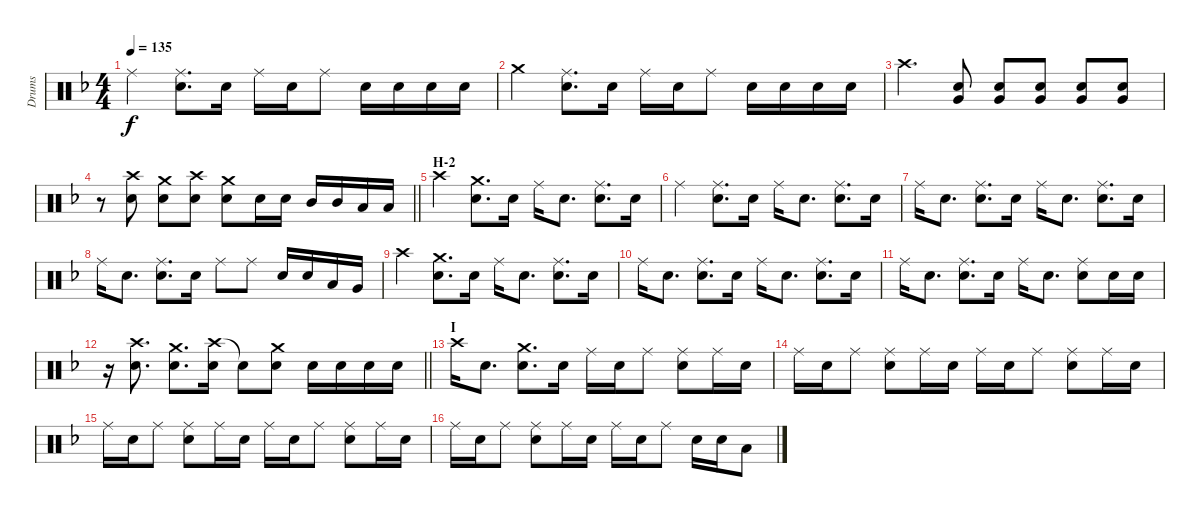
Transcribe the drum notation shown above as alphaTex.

\track ("Drums" "Drums") {instrument percussion}
\staff {score}
\articulation defaults
\ts (4 4)
\tempo 135
\clef neutral
\ks f "Ride (middle)".4{dy f}
("Ride (middle)" "Snare (hit) 2").8{d} "Snare (hit) 2".16 "Ride (middle)".16 "Snare (hit) 2".16 "Ride (middle)".8 "Snare (hit) 2".16 "Snare (hit) 2".16 "Snare (hit) 2".16 "Snare (hit) 2".16 |
"Crash medium (hit)".4 ("Ride (middle)" "Snare (hit) 2").8{d} "Snare (hit) 2".16 "Ride (middle)".16 "Snare (hit) 2".16 "Ride (middle)".8 "Snare (hit) 2".16 "Snare (hit) 2".16 "Snare (hit) 2".16 "Snare (hit) 2".16 |
"Crash high (hit)".4{d} ("Snare (hit) 2" "Very Low Tom (hit)").8 ("Snare (hit) 2" "Very Low Tom (hit)").8 ("Snare (hit) 2" "Very Low Tom (hit)").8 ("Snare (hit) 2" "Very Low Tom (hit)").8 ("Snare (hit) 2" "Very Low Tom (hit)").8 |
\barLineRight lightlight
r.8 ("Crash high (hit)" "Snare (hit) 2").8 ("Crash medium (hit)" "Snare (hit) 2").8 ("Crash high (hit)" "Snare (hit) 2").8 ("Crash medium (hit)" "Snare (hit) 2").8 "Snare (hit) 2".16 "Snare (hit) 2".16 "Mid Tom (hit)".16 "Mid Tom (hit)".16 "Low Tom (hit)".16 "Low Tom (hit)".16 |
\section ("" "H-2")
"Crash high (hit)".4 ("Crash medium (hit)" "Snare (hit) 2").8{d} "Snare (hit) 2".16 "Ride (middle)".16 "Snare (hit) 2".8{d} ("Ride (middle)" "Snare (hit) 2").8{d} "Snare (hit) 2".16 |
"Ride (middle)".4 ("Ride (middle)" "Snare (hit) 2").8{d} "Snare (hit) 2".16 "Ride (middle)".16 "Snare (hit) 2".8{d} ("Ride (middle)" "Snare (hit) 2").8{d} "Snare (hit) 2".16 |
"Ride (middle)".16 "Snare (hit) 2".8{d} ("Ride (middle)" "Snare (hit) 2").8{d} "Snare (hit) 2".16 "Ride (middle)".16 "Snare (hit) 2".8{d} ("Ride (middle)" "Snare (hit) 2").8{d} "Snare (hit) 2".16 |
"Ride (middle)".16 "Snare (hit) 2".8{d} ("Ride (middle)" "Snare (hit) 2").8{d} "Snare (hit) 2".16 "Ride (middle)".8 "Ride (middle)".8 "Snare (hit) 2".16 "Snare (hit) 2".16 "Low Tom (hit)".16 "Very Low Tom (hit)".16 |
"Crash high (hit)".4 ("Crash medium (hit)" "Snare (hit) 2").8{d} "Snare (hit) 2".16 "Ride (middle)".16 "Snare (hit) 2".8{d} ("Ride (middle)" "Snare (hit) 2").8{d} "Snare (hit) 2".16 |
"Ride (middle)".16 "Snare (hit) 2".8{d} ("Ride (middle)" "Snare (hit) 2").8{d} "Snare (hit) 2".16 "Ride (middle)".16 "Snare (hit) 2".8{d} ("Ride (middle)" "Snare (hit) 2").8{d} "Snare (hit) 2".16 |
"Ride (middle)".16 "Snare (hit) 2".8{d} ("Ride (middle)" "Snare (hit) 2").8{d} "Snare (hit) 2".16 "Ride (middle)".16 "Snare (hit) 2".8{d} ("Ride (middle)" "Snare (hit) 2").8 "Snare (hit) 2".16 "Snare (hit) 2".16 |
\barLineRight lightlight
r.16 ("Crash high (hit)" "Snare (hit) 2").8{d} ("Crash medium (hit)" "Snare (hit) 2").8{d} ("Crash high (hit)" "Snare (hit) 2").16 "Snare (hit)"{t}.8 ("Crash medium (hit)" "Snare (hit) 2").8 "Snare (hit) 2".16 "Snare (hit) 2".16 "Snare (hit) 2".16 "Snare (hit) 2".16 |
\section ("" "I")
"Crash high (hit)".16 "Snare (hit) 2".8{d} ("Crash medium (hit)" "Snare (hit) 2").8{d} "Snare (hit) 2".16 "Ride (middle)".16 "Snare (hit) 2".16 "Ride (middle)".8 ("Ride (middle)" "Snare (hit) 2").8 "Ride (middle)".16 "Snare (hit) 2".16 |
"Ride (middle)".16 "Snare (hit) 2".16 "Ride (middle)".8 ("Ride (middle)" "Snare (hit) 2").8 "Ride (middle)".16 "Snare (hit) 2".16 "Ride (middle)".16 "Snare (hit) 2".16 "Ride (middle)".8 ("Ride (middle)" "Snare (hit) 2").8 "Ride (middle)".16 "Snare (hit) 2".16 |
"Ride (middle)".16 "Snare (hit) 2".16 "Ride (middle)".8 ("Ride (middle)" "Snare (hit) 2").8 "Ride (middle)".16 "Snare (hit) 2".16 "Ride (middle)".16 "Snare (hit) 2".16 "Ride (middle)".8 ("Ride (middle)" "Snare (hit) 2").8 "Ride (middle)".16 "Snare (hit) 2".16 |
"Ride (middle)".16 "Snare (hit) 2".16 "Ride (middle)".8 ("Ride (middle)" "Snare (hit) 2").8 "Ride (middle)".16 "Snare (hit) 2".16 "Ride (middle)".16 "Snare (hit) 2".16 "Ride (middle)".8 "Snare (hit) 2".16 "Snare (hit) 2".16 "Low Tom (hit)".8
